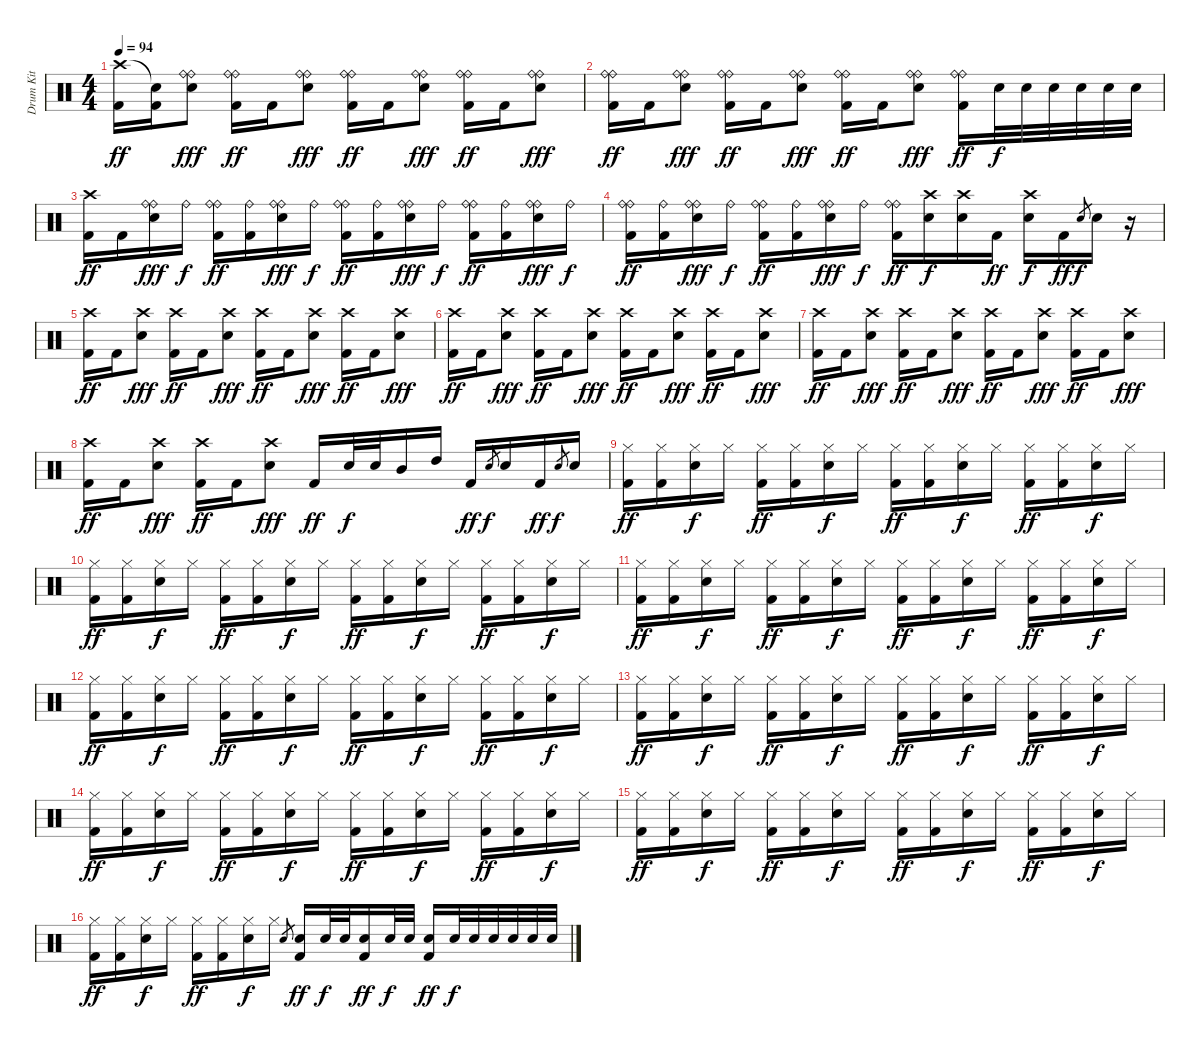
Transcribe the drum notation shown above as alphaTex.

\track ("Drum Kit" "Drum Kit") {instrument percussion}
\staff {score}
\articulation defaults
\ts (4 4)
\tempo 94
\clef neutral
\ks c
("Crash high (hit)" "Kick (hit) 2").16{dy ff} ("Snare (hit)"{t} "Kick (hit) 2").16 ("Ride (bell)" "Ride (bell)" "Electric Snare (hit)").8{dy fff} ("Ride (bell)" "Ride (bell)" "Kick (hit) 2").16{dy ff} "Kick (hit) 2".16 ("Ride (bell)" "Ride (bell)" "Electric Snare (hit)").8{dy fff} ("Ride (bell)" "Ride (bell)" "Kick (hit) 2").16{dy ff} "Kick (hit) 2".16 ("Ride (bell)" "Ride (bell)" "Electric Snare (hit)").8{dy fff} ("Ride (bell)" "Ride (bell)" "Kick (hit) 2").16{dy ff} "Kick (hit) 2".16 ("Ride (bell)" "Ride (bell)" "Electric Snare (hit)").8{dy fff} |
("Ride (bell)" "Ride (bell)" "Kick (hit) 2").16{dy ff} "Kick (hit) 2".16 ("Ride (bell)" "Ride (bell)" "Electric Snare (hit)").8{dy fff} ("Ride (bell)" "Ride (bell)" "Kick (hit) 2").16{dy ff} "Kick (hit) 2".16 ("Ride (bell)" "Ride (bell)" "Electric Snare (hit)").8{dy fff} ("Ride (bell)" "Ride (bell)" "Kick (hit) 2").16{dy ff} "Kick (hit) 2".16 ("Ride (bell)" "Ride (bell)" "Electric Snare (hit)").8{dy fff} ("Ride (bell)" "Ride (bell)" "Kick (hit) 2").16{dy ff} "Electric Snare (hit)".32{dy f} "Electric Snare (hit)".32 "Electric Snare (hit)".32 "Electric Snare (hit)".32 "Electric Snare (hit)".32 "Electric Snare (hit)".32 |
("Crash high (hit)" "Kick (hit) 2").16{dy ff} "Kick (hit) 2".16 ("Ride (bell)" "Ride (bell)" "Electric Snare (hit)").16{dy fff} "Ride (bell)".16{dy f} ("Ride (bell)" "Ride (bell)" "Kick (hit) 2").16{dy ff} ("Ride (bell)" "Kick (hit) 2").16 ("Ride (bell)" "Ride (bell)" "Electric Snare (hit)").16{dy fff} "Ride (bell)".16{dy f} ("Ride (bell)" "Ride (bell)" "Kick (hit) 2").16{dy ff} ("Ride (bell)" "Kick (hit) 2").16 ("Ride (bell)" "Ride (bell)" "Electric Snare (hit)").16{dy fff} "Ride (bell)".16{dy f} ("Ride (bell)" "Ride (bell)" "Kick (hit) 2").16{dy ff} ("Ride (bell)" "Kick (hit) 2").16 ("Ride (bell)" "Ride (bell)" "Electric Snare (hit)").16{dy fff} "Ride (bell)".16{dy f} |
("Ride (bell)" "Ride (bell)" "Kick (hit) 2").16{dy ff} ("Ride (bell)" "Kick (hit) 2").16 ("Ride (bell)" "Ride (bell)" "Electric Snare (hit)").16{dy fff} "Ride (bell)".16{dy f} ("Ride (bell)" "Ride (bell)" "Kick (hit) 2").16{dy ff} ("Ride (bell)" "Kick (hit) 2").16 ("Ride (bell)" "Ride (bell)" "Electric Snare (hit)").16{dy fff} "Ride (bell)".16{dy f} ("Ride (bell)" "Ride (bell)" "Kick (hit) 2").16{dy ff} ("Crash high (hit)" "Electric Snare (hit)").16{dy f} ("Crash high (hit)" "Electric Snare (hit)").16 "Kick (hit) 2".16{dy ff} ("Crash high (hit)" "Electric Snare (hit)").16{dy f} "Kick (hit) 2".16{dy ff} "Electric Snare (hit)".8{gr dy f} "Electric Snare (hit)".16 r.16 |
("Crash high (hit)" "Kick (hit) 2").16{dy ff} "Kick (hit) 2".16 ("Crash high (hit)" "Electric Snare (hit)").8{dy fff} ("Crash high (hit)" "Kick (hit) 2").16{dy ff} "Kick (hit) 2".16 ("Crash high (hit)" "Electric Snare (hit)").8{dy fff} ("Crash high (hit)" "Kick (hit) 2").16{dy ff} "Kick (hit) 2".16 ("Crash high (hit)" "Electric Snare (hit)").8{dy fff} ("Crash high (hit)" "Kick (hit) 2").16{dy ff} "Kick (hit) 2".16 ("Crash high (hit)" "Electric Snare (hit)").8{dy fff} |
("Crash high (hit)" "Kick (hit) 2").16{dy ff} "Kick (hit) 2".16 ("Crash high (hit)" "Electric Snare (hit)").8{dy fff} ("Crash high (hit)" "Kick (hit) 2").16{dy ff} "Kick (hit) 2".16 ("Crash high (hit)" "Electric Snare (hit)").8{dy fff} ("Crash high (hit)" "Kick (hit) 2").16{dy ff} "Kick (hit) 2".16 ("Crash high (hit)" "Electric Snare (hit)").8{dy fff} ("Crash high (hit)" "Kick (hit) 2").16{dy ff} "Kick (hit) 2".16 ("Crash high (hit)" "Electric Snare (hit)").8{dy fff} |
("Crash high (hit)" "Kick (hit) 2").16{dy ff} "Kick (hit) 2".16 ("Crash high (hit)" "Electric Snare (hit)").8{dy fff} ("Crash high (hit)" "Kick (hit) 2").16{dy ff} "Kick (hit) 2".16 ("Crash high (hit)" "Electric Snare (hit)").8{dy fff} ("Crash high (hit)" "Kick (hit) 2").16{dy ff} "Kick (hit) 2".16 ("Crash high (hit)" "Electric Snare (hit)").8{dy fff} ("Crash high (hit)" "Kick (hit) 2").16{dy ff} "Kick (hit) 2".16 ("Crash high (hit)" "Electric Snare (hit)").8{dy fff} |
("Crash high (hit)" "Kick (hit) 2").16{dy ff} "Kick (hit) 2".16 ("Crash high (hit)" "Electric Snare (hit)").8{dy fff} ("Crash high (hit)" "Kick (hit) 2").16{dy ff} "Kick (hit) 2".16 ("Crash high (hit)" "Electric Snare (hit)").8{dy fff} "Kick (hit) 2".16{dy ff} "Electric Snare (hit)".32{dy f} "Electric Snare (hit)".32 "Mid Tom (hit)".16 "High Tom (hit)".16 "Kick (hit) 2".16{dy ff} "Electric Snare (hit)".8{gr dy f} "Electric Snare (hit)".16 "Kick (hit) 2".16{dy ff} "Electric Snare (hit)".8{gr dy f} "Electric Snare (hit)".16 |
("Hi-Hat (closed)" "Kick (hit) 2").16{dy ff} ("Hi-Hat (closed)" "Kick (hit) 2").16 ("Hi-Hat (closed)" "Electric Snare (hit)").16{dy f} "Hi-Hat (closed)".16 ("Hi-Hat (closed)" "Kick (hit) 2").16{dy ff} ("Hi-Hat (closed)" "Kick (hit) 2").16 ("Hi-Hat (closed)" "Electric Snare (hit)").16{dy f} "Hi-Hat (closed)".16 ("Hi-Hat (closed)" "Kick (hit) 2").16{dy ff} ("Hi-Hat (closed)" "Kick (hit) 2").16 ("Hi-Hat (closed)" "Electric Snare (hit)").16{dy f} "Hi-Hat (closed)".16 ("Hi-Hat (closed)" "Kick (hit) 2").16{dy ff} ("Hi-Hat (closed)" "Kick (hit) 2").16 ("Hi-Hat (closed)" "Electric Snare (hit)").16{dy f} "Hi-Hat (closed)".16 |
("Hi-Hat (closed)" "Kick (hit) 2").16{dy ff} ("Hi-Hat (closed)" "Kick (hit) 2").16 ("Hi-Hat (closed)" "Electric Snare (hit)").16{dy f} "Hi-Hat (closed)".16 ("Hi-Hat (closed)" "Kick (hit) 2").16{dy ff} ("Hi-Hat (closed)" "Kick (hit) 2").16 ("Hi-Hat (closed)" "Electric Snare (hit)").16{dy f} "Hi-Hat (closed)".16 ("Hi-Hat (closed)" "Kick (hit) 2").16{dy ff} ("Hi-Hat (closed)" "Kick (hit) 2").16 ("Hi-Hat (closed)" "Electric Snare (hit)").16{dy f} "Hi-Hat (closed)".16 ("Hi-Hat (closed)" "Kick (hit) 2").16{dy ff} ("Hi-Hat (closed)" "Kick (hit) 2").16 ("Hi-Hat (closed)" "Electric Snare (hit)").16{dy f} "Hi-Hat (closed)".16 |
("Hi-Hat (closed)" "Kick (hit) 2").16{dy ff} ("Hi-Hat (closed)" "Kick (hit) 2").16 ("Hi-Hat (closed)" "Electric Snare (hit)").16{dy f} "Hi-Hat (closed)".16 ("Hi-Hat (closed)" "Kick (hit) 2").16{dy ff} ("Hi-Hat (closed)" "Kick (hit) 2").16 ("Hi-Hat (closed)" "Electric Snare (hit)").16{dy f} "Hi-Hat (closed)".16 ("Hi-Hat (closed)" "Kick (hit) 2").16{dy ff} ("Hi-Hat (closed)" "Kick (hit) 2").16 ("Hi-Hat (closed)" "Electric Snare (hit)").16{dy f} "Hi-Hat (closed)".16 ("Hi-Hat (closed)" "Kick (hit) 2").16{dy ff} ("Hi-Hat (closed)" "Kick (hit) 2").16 ("Hi-Hat (closed)" "Electric Snare (hit)").16{dy f} "Hi-Hat (closed)".16 |
("Hi-Hat (closed)" "Kick (hit) 2").16{dy ff} ("Hi-Hat (closed)" "Kick (hit) 2").16 ("Hi-Hat (closed)" "Electric Snare (hit)").16{dy f} "Hi-Hat (closed)".16 ("Hi-Hat (closed)" "Kick (hit) 2").16{dy ff} ("Hi-Hat (closed)" "Kick (hit) 2").16 ("Hi-Hat (closed)" "Electric Snare (hit)").16{dy f} "Hi-Hat (closed)".16 ("Hi-Hat (closed)" "Kick (hit) 2").16{dy ff} ("Hi-Hat (closed)" "Kick (hit) 2").16 ("Hi-Hat (closed)" "Electric Snare (hit)").16{dy f} "Hi-Hat (closed)".16 ("Hi-Hat (closed)" "Kick (hit) 2").16{dy ff} ("Hi-Hat (closed)" "Kick (hit) 2").16 ("Hi-Hat (closed)" "Electric Snare (hit)").16{dy f} "Hi-Hat (closed)".16 |
("Hi-Hat (closed)" "Kick (hit) 2").16{dy ff} ("Hi-Hat (closed)" "Kick (hit) 2").16 ("Hi-Hat (closed)" "Electric Snare (hit)").16{dy f} "Hi-Hat (closed)".16 ("Hi-Hat (closed)" "Kick (hit) 2").16{dy ff} ("Hi-Hat (closed)" "Kick (hit) 2").16 ("Hi-Hat (closed)" "Electric Snare (hit)").16{dy f} "Hi-Hat (closed)".16 ("Hi-Hat (closed)" "Kick (hit) 2").16{dy ff} ("Hi-Hat (closed)" "Kick (hit) 2").16 ("Hi-Hat (closed)" "Electric Snare (hit)").16{dy f} "Hi-Hat (closed)".16 ("Hi-Hat (closed)" "Kick (hit) 2").16{dy ff} ("Hi-Hat (closed)" "Kick (hit) 2").16 ("Hi-Hat (closed)" "Electric Snare (hit)").16{dy f} "Hi-Hat (closed)".16 |
("Hi-Hat (closed)" "Kick (hit) 2").16{dy ff} ("Hi-Hat (closed)" "Kick (hit) 2").16 ("Hi-Hat (closed)" "Electric Snare (hit)").16{dy f} "Hi-Hat (closed)".16 ("Hi-Hat (closed)" "Kick (hit) 2").16{dy ff} ("Hi-Hat (closed)" "Kick (hit) 2").16 ("Hi-Hat (closed)" "Electric Snare (hit)").16{dy f} "Hi-Hat (closed)".16 ("Hi-Hat (closed)" "Kick (hit) 2").16{dy ff} ("Hi-Hat (closed)" "Kick (hit) 2").16 ("Hi-Hat (closed)" "Electric Snare (hit)").16{dy f} "Hi-Hat (closed)".16 ("Hi-Hat (closed)" "Kick (hit) 2").16{dy ff} ("Hi-Hat (closed)" "Kick (hit) 2").16 ("Hi-Hat (closed)" "Electric Snare (hit)").16{dy f} "Hi-Hat (closed)".16 |
("Hi-Hat (closed)" "Kick (hit) 2").16{dy ff} ("Hi-Hat (closed)" "Kick (hit) 2").16 ("Hi-Hat (closed)" "Electric Snare (hit)").16{dy f} "Hi-Hat (closed)".16 ("Hi-Hat (closed)" "Kick (hit) 2").16{dy ff} ("Hi-Hat (closed)" "Kick (hit) 2").16 ("Hi-Hat (closed)" "Electric Snare (hit)").16{dy f} "Hi-Hat (closed)".16 ("Hi-Hat (closed)" "Kick (hit) 2").16{dy ff} ("Hi-Hat (closed)" "Kick (hit) 2").16 ("Hi-Hat (closed)" "Electric Snare (hit)").16{dy f} "Hi-Hat (closed)".16 ("Hi-Hat (closed)" "Kick (hit) 2").16{dy ff} ("Hi-Hat (closed)" "Kick (hit) 2").16 ("Hi-Hat (closed)" "Electric Snare (hit)").16{dy f} "Hi-Hat (closed)".16 |
("Hi-Hat (closed)" "Kick (hit) 2").16{dy ff} ("Hi-Hat (closed)" "Kick (hit) 2").16 ("Hi-Hat (closed)" "Electric Snare (hit)").16{dy f} "Hi-Hat (closed)".16 ("Hi-Hat (closed)" "Kick (hit) 2").16{dy ff} ("Hi-Hat (closed)" "Kick (hit) 2").16 ("Hi-Hat (closed)" "Electric Snare (hit)").16{dy f} "Hi-Hat (closed)".16 "Electric Snare (hit)".8{gr} ("Electric Snare (hit)" "Kick (hit) 2").16{dy ff} "Electric Snare (hit)".32{dy f} "Electric Snare (hit)".32 ("Electric Snare (hit)" "Kick (hit) 2").16{dy ff} "Electric Snare (hit)".32{dy f} "Electric Snare (hit)".32 ("Electric Snare (hit)" "Kick (hit) 2").16{dy ff} "Electric Snare (hit)".32{dy f} "Electric Snare (hit)".32 "Electric Snare (hit)".32 "Electric Snare (hit)".32 "Electric Snare (hit)".32 "Electric Snare (hit)".32
